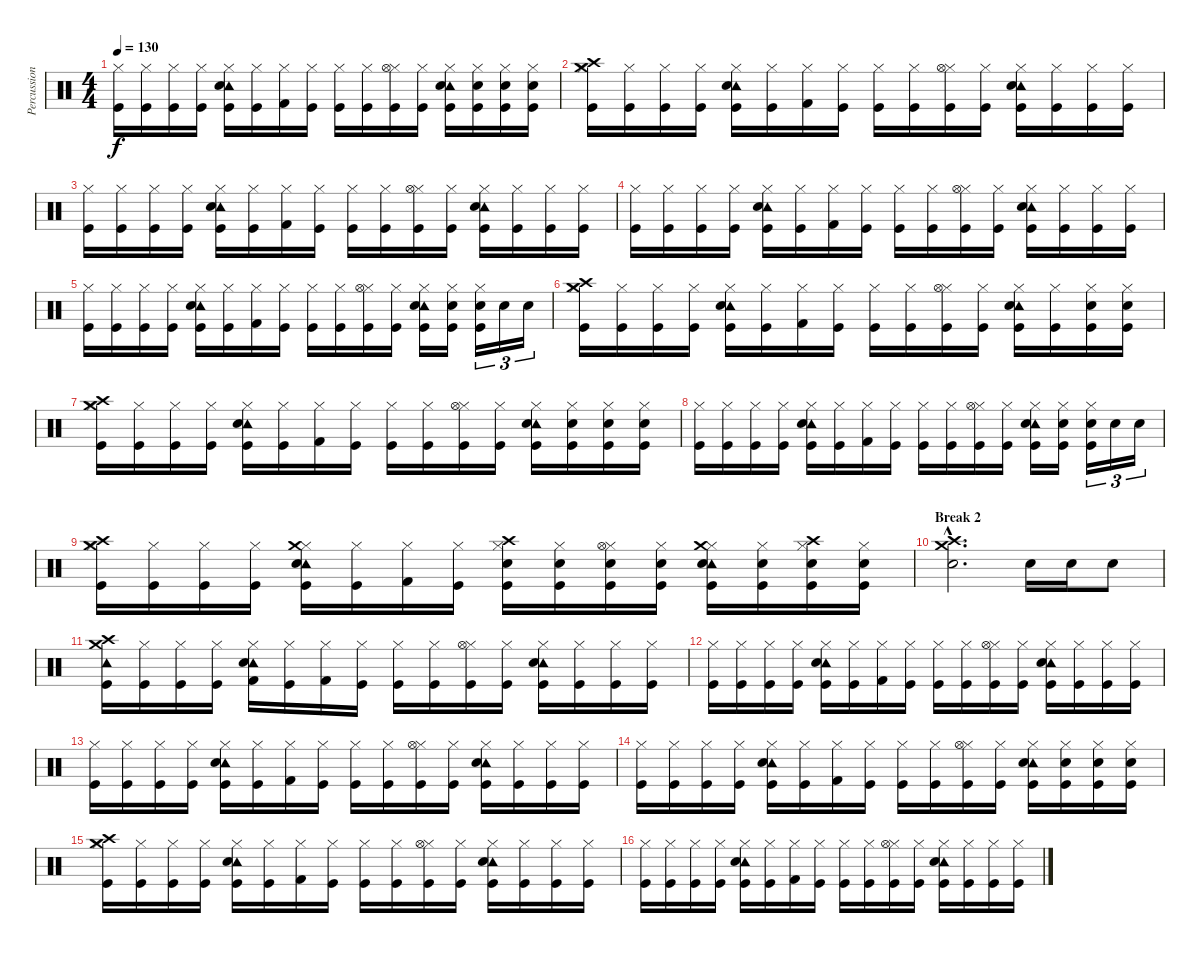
\track ("Percussion" "Percussion") {instrument percussion}
\staff {score}
\articulation defaults
\ts (4 4)
\tempo 130
\clef neutral
\ks c
("Hi-Hat (closed)" "Kick (hit)").16{dy f} ("Hi-Hat (closed)" "Kick (hit)").16 ("Hi-Hat (closed)" "Kick (hit)").16 ("Hi-Hat (closed)" "Kick (hit)").16 ("Hi-Hat (closed)" "Tambourine (hit)" "Electric Snare (hit)" "Kick (hit)").16 ("Hi-Hat (closed)" "Kick (hit)").16 ("Hi-Hat (closed)" "Kick (hit) 2").16 ("Hi-Hat (closed)" "Kick (hit)").16 ("Hi-Hat (closed)" "Kick (hit)").16 ("Hi-Hat (closed)" "Kick (hit)").16 ("Hi-Hat (closed)" "Hi-Hat (open)" "Kick (hit)").16 ("Hi-Hat (closed)" "Kick (hit)").16 ("Hi-Hat (closed)" "Tambourine (hit)" "Electric Snare (hit)" "Kick (hit)").16 ("Hi-Hat (closed)" "Electric Snare (hit)" "Kick (hit)").16 ("Hi-Hat (closed)" "Electric Snare (hit)" "Kick (hit)").16 ("Hi-Hat (closed)" "Electric Snare (hit)" "Kick (hit)").16 |
("Hi-Hat (closed)" "Crash medium (hit)" "Crash high (hit)" "Kick (hit)").16 ("Hi-Hat (closed)" "Kick (hit)").16 ("Hi-Hat (closed)" "Kick (hit)").16 ("Hi-Hat (closed)" "Kick (hit)").16 ("Hi-Hat (closed)" "Tambourine (hit)" "Electric Snare (hit)" "Kick (hit)").16 ("Hi-Hat (closed)" "Kick (hit)").16 ("Hi-Hat (closed)" "Kick (hit) 2").16 ("Hi-Hat (closed)" "Kick (hit)").16 ("Hi-Hat (closed)" "Kick (hit)").16 ("Hi-Hat (closed)" "Kick (hit)").16 ("Hi-Hat (closed)" "Hi-Hat (open)" "Kick (hit)").16 ("Hi-Hat (closed)" "Kick (hit)").16 ("Hi-Hat (closed)" "Tambourine (hit)" "Electric Snare (hit)" "Kick (hit)").16 ("Hi-Hat (closed)" "Kick (hit)").16 ("Hi-Hat (closed)" "Kick (hit)").16 ("Hi-Hat (closed)" "Kick (hit)").16 |
("Hi-Hat (closed)" "Kick (hit)").16 ("Hi-Hat (closed)" "Kick (hit)").16 ("Hi-Hat (closed)" "Kick (hit)").16 ("Hi-Hat (closed)" "Kick (hit)").16 ("Hi-Hat (closed)" "Tambourine (hit)" "Electric Snare (hit)" "Kick (hit)").16 ("Hi-Hat (closed)" "Kick (hit)").16 ("Hi-Hat (closed)" "Kick (hit) 2").16 ("Hi-Hat (closed)" "Kick (hit)").16 ("Hi-Hat (closed)" "Kick (hit)").16 ("Hi-Hat (closed)" "Kick (hit)").16 ("Hi-Hat (closed)" "Hi-Hat (open)" "Kick (hit)").16 ("Hi-Hat (closed)" "Kick (hit)").16 ("Hi-Hat (closed)" "Tambourine (hit)" "Electric Snare (hit)" "Kick (hit)").16 ("Hi-Hat (closed)" "Kick (hit)").16 ("Hi-Hat (closed)" "Kick (hit)").16 ("Hi-Hat (closed)" "Kick (hit)").16 |
("Hi-Hat (closed)" "Kick (hit)").16 ("Hi-Hat (closed)" "Kick (hit)").16 ("Hi-Hat (closed)" "Kick (hit)").16 ("Hi-Hat (closed)" "Kick (hit)").16 ("Hi-Hat (closed)" "Tambourine (hit)" "Electric Snare (hit)" "Kick (hit)").16 ("Hi-Hat (closed)" "Kick (hit)").16 ("Hi-Hat (closed)" "Kick (hit) 2").16 ("Hi-Hat (closed)" "Kick (hit)").16 ("Hi-Hat (closed)" "Kick (hit)").16 ("Hi-Hat (closed)" "Kick (hit)").16 ("Hi-Hat (closed)" "Hi-Hat (open)" "Kick (hit)").16 ("Hi-Hat (closed)" "Kick (hit)").16 ("Hi-Hat (closed)" "Tambourine (hit)" "Electric Snare (hit)" "Kick (hit)").16 ("Hi-Hat (closed)" "Kick (hit)").16 ("Hi-Hat (closed)" "Kick (hit)").16 ("Hi-Hat (closed)" "Kick (hit)").16 |
("Hi-Hat (closed)" "Kick (hit)").16 ("Hi-Hat (closed)" "Kick (hit)").16 ("Hi-Hat (closed)" "Kick (hit)").16 ("Hi-Hat (closed)" "Kick (hit)").16 ("Hi-Hat (closed)" "Tambourine (hit)" "Electric Snare (hit)" "Kick (hit)").16 ("Hi-Hat (closed)" "Kick (hit)").16 ("Hi-Hat (closed)" "Kick (hit) 2").16 ("Hi-Hat (closed)" "Kick (hit)").16 ("Hi-Hat (closed)" "Kick (hit)").16 ("Hi-Hat (closed)" "Kick (hit)").16 ("Hi-Hat (closed)" "Hi-Hat (open)" "Kick (hit)").16 ("Hi-Hat (closed)" "Kick (hit)").16 ("Hi-Hat (closed)" "Tambourine (hit)" "Electric Snare (hit)" "Kick (hit)").16 ("Hi-Hat (closed)" "Electric Snare (hit)" "Kick (hit)").16 ("Hi-Hat (closed)" "Electric Snare (hit)" "Kick (hit)").16{tu (3 2)} "Electric Snare (hit)".16{tu (3 2)} "Electric Snare (hit)".16{tu (3 2)} |
("Hi-Hat (closed)" "Crash high (hit)" "Crash medium (hit)" "Kick (hit)").16 ("Hi-Hat (closed)" "Kick (hit)").16 ("Hi-Hat (closed)" "Kick (hit)").16 ("Hi-Hat (closed)" "Kick (hit)").16 ("Hi-Hat (closed)" "Tambourine (hit)" "Electric Snare (hit)" "Kick (hit)").16 ("Hi-Hat (closed)" "Kick (hit)").16 ("Hi-Hat (closed)" "Kick (hit) 2").16 ("Hi-Hat (closed)" "Kick (hit)").16 ("Hi-Hat (closed)" "Kick (hit)").16 ("Hi-Hat (closed)" "Kick (hit)").16 ("Hi-Hat (closed)" "Hi-Hat (open)" "Kick (hit)").16 ("Hi-Hat (closed)" "Kick (hit)").16 ("Hi-Hat (closed)" "Tambourine (hit)" "Electric Snare (hit)" "Kick (hit)").16 ("Hi-Hat (closed)" "Kick (hit)").16 ("Hi-Hat (closed)" "Electric Snare (hit)" "Kick (hit)").16 ("Hi-Hat (closed)" "Electric Snare (hit)" "Kick (hit)").16 |
("Hi-Hat (closed)" "Crash medium (hit)" "Crash high (hit)" "Kick (hit)").16 ("Hi-Hat (closed)" "Kick (hit)").16 ("Hi-Hat (closed)" "Kick (hit)").16 ("Hi-Hat (closed)" "Kick (hit)").16 ("Hi-Hat (closed)" "Tambourine (hit)" "Electric Snare (hit)" "Kick (hit)").16 ("Hi-Hat (closed)" "Kick (hit)").16 ("Hi-Hat (closed)" "Kick (hit) 2").16 ("Hi-Hat (closed)" "Kick (hit)").16 ("Hi-Hat (closed)" "Kick (hit)").16 ("Hi-Hat (closed)" "Kick (hit)").16 ("Hi-Hat (closed)" "Hi-Hat (open)" "Kick (hit)").16 ("Hi-Hat (closed)" "Kick (hit)").16 ("Hi-Hat (closed)" "Tambourine (hit)" "Electric Snare (hit)" "Kick (hit)").16 ("Hi-Hat (closed)" "Electric Snare (hit)" "Kick (hit)").16 ("Hi-Hat (closed)" "Electric Snare (hit)" "Kick (hit)").16 ("Hi-Hat (closed)" "Electric Snare (hit)" "Kick (hit)").16 |
("Hi-Hat (closed)" "Kick (hit)").16 ("Hi-Hat (closed)" "Kick (hit)").16 ("Hi-Hat (closed)" "Kick (hit)").16 ("Hi-Hat (closed)" "Kick (hit)").16 ("Hi-Hat (closed)" "Tambourine (hit)" "Electric Snare (hit)" "Kick (hit)").16 ("Hi-Hat (closed)" "Kick (hit)").16 ("Hi-Hat (closed)" "Kick (hit) 2").16 ("Hi-Hat (closed)" "Kick (hit)").16 ("Hi-Hat (closed)" "Kick (hit)").16 ("Hi-Hat (closed)" "Kick (hit)").16 ("Hi-Hat (closed)" "Hi-Hat (open)" "Kick (hit)").16 ("Hi-Hat (closed)" "Kick (hit)").16 ("Hi-Hat (closed)" "Tambourine (hit)" "Electric Snare (hit)" "Kick (hit)").16 ("Hi-Hat (closed)" "Electric Snare (hit)" "Kick (hit)").16 ("Hi-Hat (closed)" "Electric Snare (hit)" "Kick (hit)").16{tu (3 2)} "Electric Snare (hit)".16{tu (3 2)} "Electric Snare (hit)".16{tu (3 2)} |
("Hi-Hat (closed)" "Crash medium (hit)" "Crash high (hit)" "Kick (hit)").16 ("Hi-Hat (closed)" "Kick (hit)").16 ("Hi-Hat (closed)" "Kick (hit)").16 ("Hi-Hat (closed)" "Kick (hit)").16 ("Hi-Hat (closed)" "Tambourine (hit)" "Crash medium (hit)" "Electric Snare (hit)" "Kick (hit)").16 ("Hi-Hat (closed)" "Kick (hit)").16 ("Hi-Hat (closed)" "Kick (hit) 2").16 ("Hi-Hat (closed)" "Kick (hit)").16 ("Hi-Hat (closed)" "Crash high (hit)" "Electric Snare (hit)" "Kick (hit)").16 ("Hi-Hat (closed)" "Electric Snare (hit)" "Kick (hit)").16 ("Hi-Hat (closed)" "Hi-Hat (open)" "Electric Snare (hit)" "Kick (hit)").16 ("Hi-Hat (closed)" "Electric Snare (hit)" "Kick (hit)").16 ("Hi-Hat (closed)" "Tambourine (hit)" "Crash medium (hit)" "Electric Snare (hit)" "Kick (hit)").16 ("Hi-Hat (closed)" "Electric Snare (hit)" "Kick (hit)").16 ("Hi-Hat (closed)" "Crash high (hit)" "Electric Snare (hit)" "Kick (hit)").16 ("Hi-Hat (closed)" "Electric Snare (hit)" "Kick (hit)").16 |
\section ("" "Break 2")
("Crash medium (hit)"{hac} "Crash high (hit)"{hac} "Electric Snare (hit)"{hac}).2{d} "Electric Snare (hit)".16 "Electric Snare (hit)".16 "Electric Snare (hit)".8 |
("Tambourine (hit)" "Crash medium (hit)" "Crash high (hit)" "Kick (hit)").16 ("Hi-Hat (closed)" "Kick (hit)").16 ("Hi-Hat (closed)" "Kick (hit)").16 ("Hi-Hat (closed)" "Kick (hit)").16 ("Hi-Hat (closed)" "Tambourine (hit)" "Electric Snare (hit)" "Kick (hit) 2").16 ("Hi-Hat (closed)" "Kick (hit)").16 ("Hi-Hat (closed)" "Kick (hit) 2").16 ("Hi-Hat (closed)" "Kick (hit)").16 ("Hi-Hat (closed)" "Kick (hit)").16 ("Hi-Hat (closed)" "Kick (hit)").16 ("Hi-Hat (closed)" "Hi-Hat (open)" "Kick (hit)").16 ("Hi-Hat (closed)" "Kick (hit)").16 ("Hi-Hat (closed)" "Tambourine (hit)" "Electric Snare (hit)" "Kick (hit)").16 ("Hi-Hat (closed)" "Kick (hit)").16 ("Hi-Hat (closed)" "Kick (hit)").16 ("Hi-Hat (closed)" "Kick (hit)").16 |
("Hi-Hat (closed)" "Kick (hit)").16 ("Hi-Hat (closed)" "Kick (hit)").16 ("Hi-Hat (closed)" "Kick (hit)").16 ("Hi-Hat (closed)" "Kick (hit)").16 ("Hi-Hat (closed)" "Tambourine (hit)" "Electric Snare (hit)" "Kick (hit)").16 ("Hi-Hat (closed)" "Kick (hit)").16 ("Hi-Hat (closed)" "Kick (hit) 2").16 ("Hi-Hat (closed)" "Kick (hit)").16 ("Hi-Hat (closed)" "Kick (hit)").16 ("Hi-Hat (closed)" "Kick (hit)").16 ("Hi-Hat (closed)" "Hi-Hat (open)" "Kick (hit)").16 ("Hi-Hat (closed)" "Kick (hit)").16 ("Hi-Hat (closed)" "Tambourine (hit)" "Electric Snare (hit)" "Kick (hit)").16 ("Hi-Hat (closed)" "Kick (hit)").16 ("Hi-Hat (closed)" "Kick (hit)").16 ("Hi-Hat (closed)" "Kick (hit)").16 |
("Hi-Hat (closed)" "Kick (hit)").16 ("Hi-Hat (closed)" "Kick (hit)").16 ("Hi-Hat (closed)" "Kick (hit)").16 ("Hi-Hat (closed)" "Kick (hit)").16 ("Hi-Hat (closed)" "Tambourine (hit)" "Electric Snare (hit)" "Kick (hit)").16 ("Hi-Hat (closed)" "Kick (hit)").16 ("Hi-Hat (closed)" "Kick (hit) 2").16 ("Hi-Hat (closed)" "Kick (hit)").16 ("Hi-Hat (closed)" "Kick (hit)").16 ("Hi-Hat (closed)" "Kick (hit)").16 ("Hi-Hat (closed)" "Hi-Hat (open)" "Kick (hit)").16 ("Hi-Hat (closed)" "Kick (hit)").16 ("Hi-Hat (closed)" "Tambourine (hit)" "Electric Snare (hit)" "Kick (hit)").16 ("Hi-Hat (closed)" "Kick (hit)").16 ("Hi-Hat (closed)" "Kick (hit)").16 ("Hi-Hat (closed)" "Kick (hit)").16 |
("Hi-Hat (closed)" "Kick (hit)").16 ("Hi-Hat (closed)" "Kick (hit)").16 ("Hi-Hat (closed)" "Kick (hit)").16 ("Hi-Hat (closed)" "Kick (hit)").16 ("Hi-Hat (closed)" "Tambourine (hit)" "Electric Snare (hit)" "Kick (hit)").16 ("Hi-Hat (closed)" "Kick (hit)").16 ("Hi-Hat (closed)" "Kick (hit) 2").16 ("Hi-Hat (closed)" "Kick (hit)").16 ("Hi-Hat (closed)" "Kick (hit)").16 ("Hi-Hat (closed)" "Kick (hit)").16 ("Hi-Hat (closed)" "Hi-Hat (open)" "Kick (hit)").16 ("Hi-Hat (closed)" "Kick (hit)").16 ("Hi-Hat (closed)" "Tambourine (hit)" "Electric Snare (hit)" "Kick (hit)").16 ("Hi-Hat (closed)" "Electric Snare (hit)" "Kick (hit)").16 ("Hi-Hat (closed)" "Electric Snare (hit)" "Kick (hit)").16 ("Hi-Hat (closed)" "Electric Snare (hit)" "Kick (hit)").16 |
("Hi-Hat (closed)" "Crash medium (hit)" "Crash high (hit)" "Kick (hit)").16 ("Hi-Hat (closed)" "Kick (hit)").16 ("Hi-Hat (closed)" "Kick (hit)").16 ("Hi-Hat (closed)" "Kick (hit)").16 ("Hi-Hat (closed)" "Tambourine (hit)" "Electric Snare (hit)" "Kick (hit)").16 ("Hi-Hat (closed)" "Kick (hit)").16 ("Hi-Hat (closed)" "Kick (hit) 2").16 ("Hi-Hat (closed)" "Kick (hit)").16 ("Hi-Hat (closed)" "Kick (hit)").16 ("Hi-Hat (closed)" "Kick (hit)").16 ("Hi-Hat (closed)" "Hi-Hat (open)" "Kick (hit)").16 ("Hi-Hat (closed)" "Kick (hit)").16 ("Hi-Hat (closed)" "Tambourine (hit)" "Electric Snare (hit)" "Kick (hit)").16 ("Hi-Hat (closed)" "Kick (hit)").16 ("Hi-Hat (closed)" "Kick (hit)").16 ("Hi-Hat (closed)" "Kick (hit)").16 |
("Hi-Hat (closed)" "Kick (hit)").16 ("Hi-Hat (closed)" "Kick (hit)").16 ("Hi-Hat (closed)" "Kick (hit)").16 ("Hi-Hat (closed)" "Kick (hit)").16 ("Hi-Hat (closed)" "Tambourine (hit)" "Electric Snare (hit)" "Kick (hit)").16 ("Hi-Hat (closed)" "Kick (hit)").16 ("Hi-Hat (closed)" "Kick (hit) 2").16 ("Hi-Hat (closed)" "Kick (hit)").16 ("Hi-Hat (closed)" "Kick (hit)").16 ("Hi-Hat (closed)" "Kick (hit)").16 ("Hi-Hat (closed)" "Hi-Hat (open)" "Kick (hit)").16 ("Hi-Hat (closed)" "Kick (hit)").16 ("Hi-Hat (closed)" "Tambourine (hit)" "Electric Snare (hit)" "Kick (hit)").16 ("Hi-Hat (closed)" "Kick (hit)").16 ("Hi-Hat (closed)" "Kick (hit)").16 ("Hi-Hat (closed)" "Kick (hit)").16
